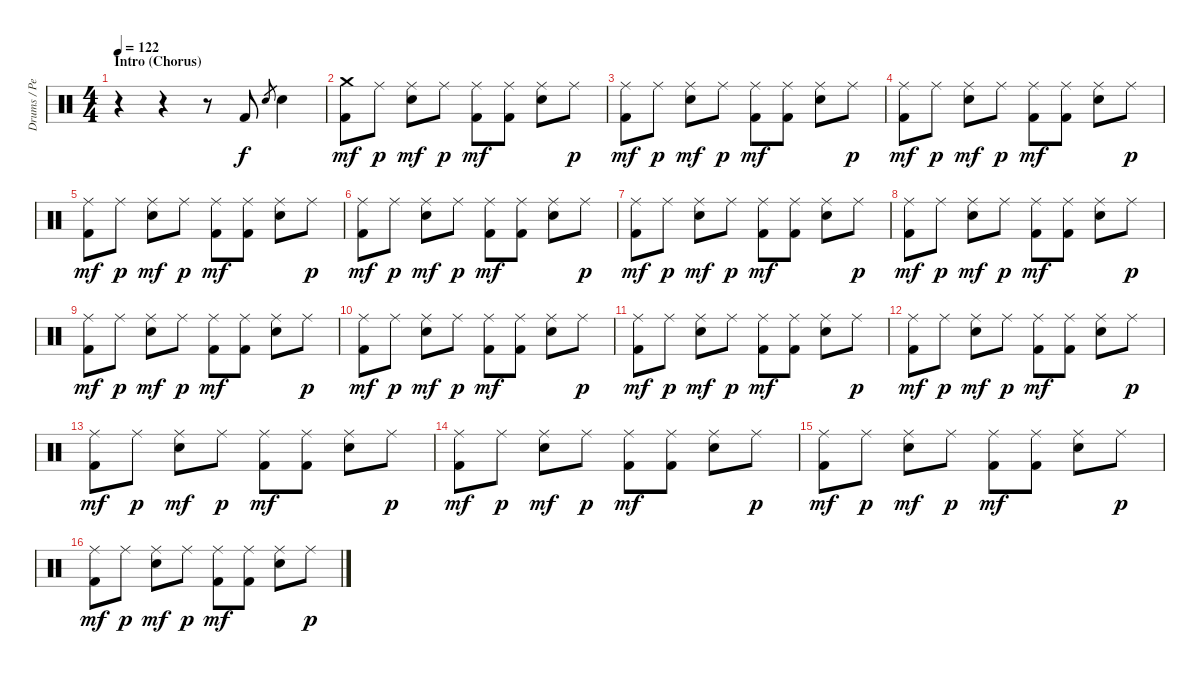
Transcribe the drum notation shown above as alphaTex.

\track ("Drums / Percussion" "Drums / Pe") {instrument percussion}
\staff {score}
\articulation defaults
\ts (4 4)
\section ("" "Intro (Chorus)")
\tempo 122
\clef neutral
\ks c
r.4{dy f} r.4 r.8 "Kick (hit) 2".8 "Snare (hit) 2".8{gr} "Snare (hit) 2".4 |
("Crash medium (hit)" "Kick (hit) 2").8{dy mf} "Ride (middle)".8{dy p} ("Ride (middle)" "Snare (hit) 2").8{dy mf} "Ride (middle)".8{dy p} ("Ride (middle)" "Kick (hit) 2").8{dy mf} ("Ride (middle)" "Kick (hit) 2").8 ("Ride (middle)" "Snare (hit) 2").8 "Ride (middle)".8{dy p} |
("Ride (middle)" "Kick (hit) 2").8{dy mf} "Ride (middle)".8{dy p} ("Ride (middle)" "Snare (hit) 2").8{dy mf} "Ride (middle)".8{dy p} ("Ride (middle)" "Kick (hit) 2").8{dy mf} ("Ride (middle)" "Kick (hit) 2").8 ("Ride (middle)" "Snare (hit) 2").8 "Ride (middle)".8{dy p} |
("Ride (middle)" "Kick (hit) 2").8{dy mf} "Ride (middle)".8{dy p} ("Ride (middle)" "Snare (hit) 2").8{dy mf} "Ride (middle)".8{dy p} ("Ride (middle)" "Kick (hit) 2").8{dy mf} ("Ride (middle)" "Kick (hit) 2").8 ("Ride (middle)" "Snare (hit) 2").8 "Ride (middle)".8{dy p} |
("Ride (middle)" "Kick (hit) 2").8{dy mf} "Ride (middle)".8{dy p} ("Ride (middle)" "Snare (hit) 2").8{dy mf} "Ride (middle)".8{dy p} ("Ride (middle)" "Kick (hit) 2").8{dy mf} ("Ride (middle)" "Kick (hit) 2").8 ("Ride (middle)" "Snare (hit) 2").8 "Ride (middle)".8{dy p} |
("Ride (middle)" "Kick (hit) 2").8{dy mf} "Ride (middle)".8{dy p} ("Ride (middle)" "Snare (hit) 2").8{dy mf} "Ride (middle)".8{dy p} ("Ride (middle)" "Kick (hit) 2").8{dy mf} ("Ride (middle)" "Kick (hit) 2").8 ("Ride (middle)" "Snare (hit) 2").8 "Ride (middle)".8{dy p} |
("Ride (middle)" "Kick (hit) 2").8{dy mf} "Ride (middle)".8{dy p} ("Ride (middle)" "Snare (hit) 2").8{dy mf} "Ride (middle)".8{dy p} ("Ride (middle)" "Kick (hit) 2").8{dy mf} ("Ride (middle)" "Kick (hit) 2").8 ("Ride (middle)" "Snare (hit) 2").8 "Ride (middle)".8{dy p} |
("Ride (middle)" "Kick (hit) 2").8{dy mf} "Ride (middle)".8{dy p} ("Ride (middle)" "Snare (hit) 2").8{dy mf} "Ride (middle)".8{dy p} ("Ride (middle)" "Kick (hit) 2").8{dy mf} ("Ride (middle)" "Kick (hit) 2").8 ("Ride (middle)" "Snare (hit) 2").8 "Ride (middle)".8{dy p} |
("Ride (middle)" "Kick (hit) 2").8{dy mf} "Ride (middle)".8{dy p} ("Ride (middle)" "Snare (hit) 2").8{dy mf} "Ride (middle)".8{dy p} ("Ride (middle)" "Kick (hit) 2").8{dy mf} ("Ride (middle)" "Kick (hit) 2").8 ("Ride (middle)" "Snare (hit) 2").8 "Ride (middle)".8{dy p} |
("Ride (middle)" "Kick (hit) 2").8{dy mf} "Ride (middle)".8{dy p} ("Ride (middle)" "Snare (hit) 2").8{dy mf} "Ride (middle)".8{dy p} ("Ride (middle)" "Kick (hit) 2").8{dy mf} ("Ride (middle)" "Kick (hit) 2").8 ("Ride (middle)" "Snare (hit) 2").8 "Ride (middle)".8{dy p} |
("Ride (middle)" "Kick (hit) 2").8{dy mf} "Ride (middle)".8{dy p} ("Ride (middle)" "Snare (hit) 2").8{dy mf} "Ride (middle)".8{dy p} ("Ride (middle)" "Kick (hit) 2").8{dy mf} ("Ride (middle)" "Kick (hit) 2").8 ("Ride (middle)" "Snare (hit) 2").8 "Ride (middle)".8{dy p} |
("Ride (middle)" "Kick (hit) 2").8{dy mf} "Ride (middle)".8{dy p} ("Ride (middle)" "Snare (hit) 2").8{dy mf} "Ride (middle)".8{dy p} ("Ride (middle)" "Kick (hit) 2").8{dy mf} ("Ride (middle)" "Kick (hit) 2").8 ("Ride (middle)" "Snare (hit) 2").8 "Ride (middle)".8{dy p} |
("Ride (middle)" "Kick (hit) 2").8{dy mf} "Ride (middle)".8{dy p} ("Ride (middle)" "Snare (hit) 2").8{dy mf} "Ride (middle)".8{dy p} ("Ride (middle)" "Kick (hit) 2").8{dy mf} ("Ride (middle)" "Kick (hit) 2").8 ("Ride (middle)" "Snare (hit) 2").8 "Ride (middle)".8{dy p} |
("Ride (middle)" "Kick (hit) 2").8{dy mf} "Ride (middle)".8{dy p} ("Ride (middle)" "Snare (hit) 2").8{dy mf} "Ride (middle)".8{dy p} ("Ride (middle)" "Kick (hit) 2").8{dy mf} ("Ride (middle)" "Kick (hit) 2").8 ("Ride (middle)" "Snare (hit) 2").8 "Ride (middle)".8{dy p} |
("Ride (middle)" "Kick (hit) 2").8{dy mf} "Ride (middle)".8{dy p} ("Ride (middle)" "Snare (hit) 2").8{dy mf} "Ride (middle)".8{dy p} ("Ride (middle)" "Kick (hit) 2").8{dy mf} ("Ride (middle)" "Kick (hit) 2").8 ("Ride (middle)" "Snare (hit) 2").8 "Ride (middle)".8{dy p} |
("Ride (middle)" "Kick (hit) 2").8{dy mf} "Ride (middle)".8{dy p} ("Ride (middle)" "Snare (hit) 2").8{dy mf} "Ride (middle)".8{dy p} ("Ride (middle)" "Kick (hit) 2").8{dy mf} ("Ride (middle)" "Kick (hit) 2").8 ("Ride (middle)" "Snare (hit) 2").8 "Ride (middle)".8{dy p}
